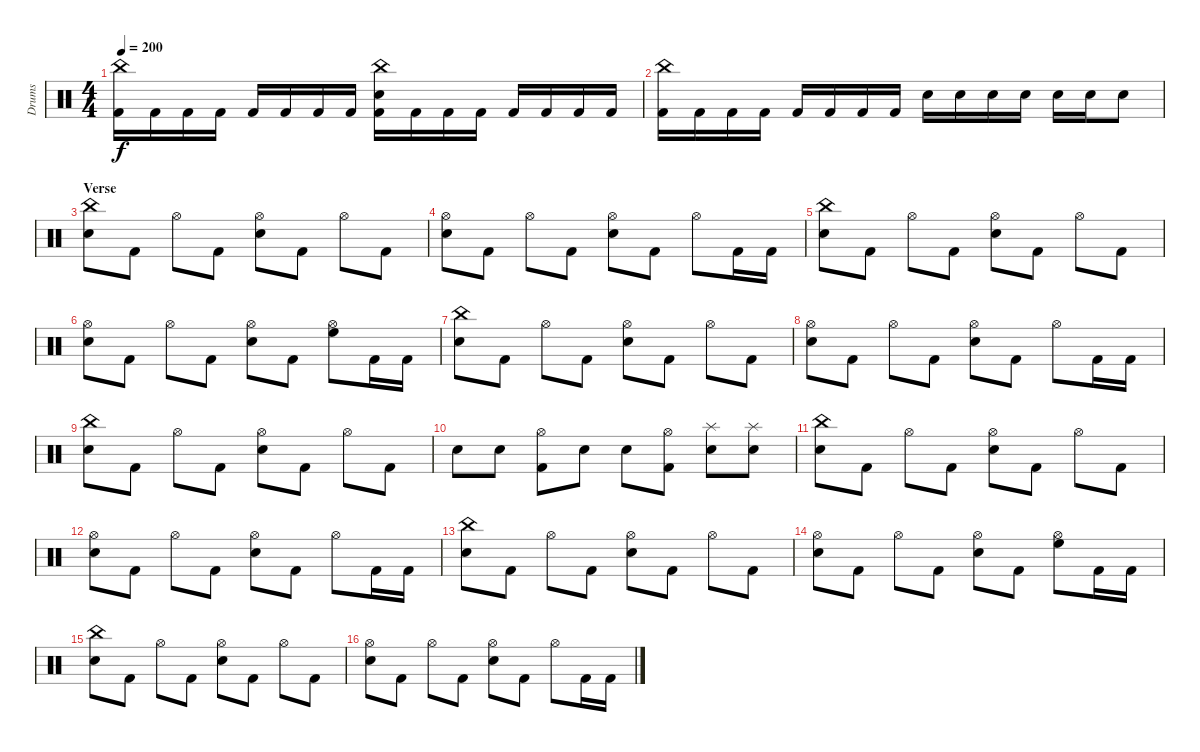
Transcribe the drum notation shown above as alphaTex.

\track ("Drums" "Drums") {instrument percussion}
\staff {score}
\articulation defaults
\ts (4 4)
\tempo 200
\clef neutral
\ks c
("China (hit)" "Kick (hit) 2").16{dy f} "Kick (hit) 2".16 "Kick (hit) 2".16 "Kick (hit) 2".16 "Kick (hit) 2".16 "Kick (hit) 2".16 "Kick (hit) 2".16 "Kick (hit) 2".16 ("China (hit)" "Electric Snare (hit)" "Kick (hit) 2").16 "Kick (hit) 2".16 "Kick (hit) 2".16 "Kick (hit) 2".16 "Kick (hit) 2".16 "Kick (hit) 2".16 "Kick (hit) 2".16 "Kick (hit) 2".16 |
("China (hit)" "Kick (hit) 2").16 "Kick (hit) 2".16 "Kick (hit) 2".16 "Kick (hit) 2".16 "Kick (hit) 2".16 "Kick (hit) 2".16 "Kick (hit) 2".16 "Kick (hit) 2".16 "Electric Snare (hit)".16 "Electric Snare (hit)".16 "Electric Snare (hit)".16 "Electric Snare (hit)".16 "Electric Snare (hit)".16 "Electric Snare (hit)".16 "Electric Snare (hit)".8 |
\section ("" "Verse")
("China (hit)" "Electric Snare (hit)").8 "Kick (hit) 2".8 "Hi-Hat (open)".8 "Kick (hit) 2".8 ("Hi-Hat (open)" "Electric Snare (hit)").8 "Kick (hit) 2".8 "Hi-Hat (open)".8 "Kick (hit) 2".8 |
("Hi-Hat (open)" "Electric Snare (hit)").8 "Kick (hit) 2".8 "Hi-Hat (open)".8 "Kick (hit) 2".8 ("Hi-Hat (open)" "Electric Snare (hit)").8 "Kick (hit) 2".8 "Hi-Hat (open)".8 "Kick (hit) 2".16 "Kick (hit) 2".16 |
("China (hit)" "Electric Snare (hit)").8 "Kick (hit) 2".8 "Hi-Hat (open)".8 "Kick (hit) 2".8 ("Hi-Hat (open)" "Electric Snare (hit)").8 "Kick (hit) 2".8 "Hi-Hat (open)".8 "Kick (hit) 2".8 |
("Hi-Hat (open)" "Electric Snare (hit)").8 "Kick (hit) 2".8 "Hi-Hat (open)".8 "Kick (hit) 2".8 ("Hi-Hat (open)" "Electric Snare (hit)").8 "Kick (hit) 2".8 ("Hi-Hat (open)" "High Floor Tom (hit)").8 "Kick (hit) 2".16 "Kick (hit) 2".16 |
("China (hit)" "Electric Snare (hit)").8 "Kick (hit) 2".8 "Hi-Hat (open)".8 "Kick (hit) 2".8 ("Hi-Hat (open)" "Electric Snare (hit)").8 "Kick (hit) 2".8 "Hi-Hat (open)".8 "Kick (hit) 2".8 |
("Hi-Hat (open)" "Electric Snare (hit)").8 "Kick (hit) 2".8 "Hi-Hat (open)".8 "Kick (hit) 2".8 ("Hi-Hat (open)" "Electric Snare (hit)").8 "Kick (hit) 2".8 "Hi-Hat (open)".8 "Kick (hit) 2".16 "Kick (hit) 2".16 |
("China (hit)" "Electric Snare (hit)").8 "Kick (hit) 2".8 "Hi-Hat (open)".8 "Kick (hit) 2".8 ("Hi-Hat (open)" "Electric Snare (hit)").8 "Kick (hit) 2".8 "Hi-Hat (open)".8 "Kick (hit) 2".8 |
"Electric Snare (hit)".8 "Electric Snare (hit)".8 ("Hi-Hat (open)" "Kick (hit) 2").8 "Electric Snare (hit)".8 "Electric Snare (hit)".8 ("Hi-Hat (open)" "Kick (hit) 2").8 ("Splash (hit)" "Electric Snare (hit)").8 ("Splash (hit)" "Electric Snare (hit)").8 |
("China (hit)" "Electric Snare (hit)").8 "Kick (hit) 2".8 "Hi-Hat (open)".8 "Kick (hit) 2".8 ("Hi-Hat (open)" "Electric Snare (hit)").8 "Kick (hit) 2".8 "Hi-Hat (open)".8 "Kick (hit) 2".8 |
("Hi-Hat (open)" "Electric Snare (hit)").8 "Kick (hit) 2".8 "Hi-Hat (open)".8 "Kick (hit) 2".8 ("Hi-Hat (open)" "Electric Snare (hit)").8 "Kick (hit) 2".8 "Hi-Hat (open)".8 "Kick (hit) 2".16 "Kick (hit) 2".16 |
("China (hit)" "Electric Snare (hit)").8 "Kick (hit) 2".8 "Hi-Hat (open)".8 "Kick (hit) 2".8 ("Hi-Hat (open)" "Electric Snare (hit)").8 "Kick (hit) 2".8 "Hi-Hat (open)".8 "Kick (hit) 2".8 |
("Hi-Hat (open)" "Electric Snare (hit)").8 "Kick (hit) 2".8 "Hi-Hat (open)".8 "Kick (hit) 2".8 ("Hi-Hat (open)" "Electric Snare (hit)").8 "Kick (hit) 2".8 ("Hi-Hat (open)" "High Floor Tom (hit)").8 "Kick (hit) 2".16 "Kick (hit) 2".16 |
("China (hit)" "Electric Snare (hit)").8 "Kick (hit) 2".8 "Hi-Hat (open)".8 "Kick (hit) 2".8 ("Hi-Hat (open)" "Electric Snare (hit)").8 "Kick (hit) 2".8 "Hi-Hat (open)".8 "Kick (hit) 2".8 |
("Hi-Hat (open)" "Electric Snare (hit)").8 "Kick (hit) 2".8 "Hi-Hat (open)".8 "Kick (hit) 2".8 ("Hi-Hat (open)" "Electric Snare (hit)").8 "Kick (hit) 2".8 "Hi-Hat (open)".8 "Kick (hit) 2".16 "Kick (hit) 2".16
